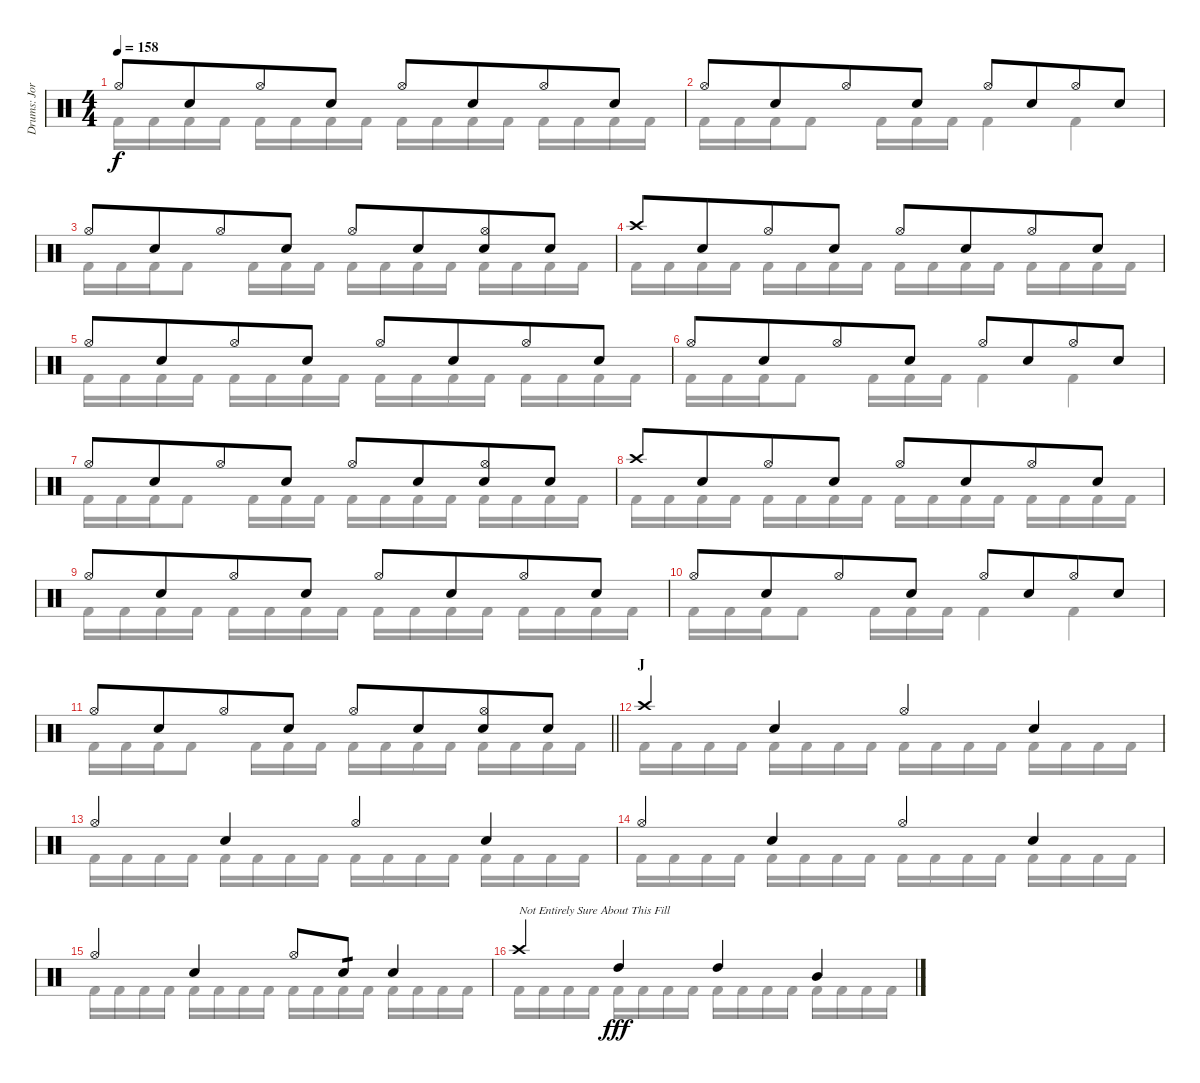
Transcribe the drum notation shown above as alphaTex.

\track ("Drums: Jorg" "Drums: Jor") {instrument percussion}
\staff {score}
\articulation defaults
\voice
\ts (4 4)
\tempo 158
\clef neutral
\ks c "Hi-Hat (open)".8{dy f} "Snare (hit) 2".8{beam merge} "Hi-Hat (open)".8 "Snare (hit) 2".8 "Hi-Hat (open)".8 "Snare (hit) 2".8{beam merge} "Hi-Hat (open)".8 "Snare (hit) 2".8
|
"Hi-Hat (open)".8 "Snare (hit) 2".8{beam merge} "Hi-Hat (open)".8 "Snare (hit) 2".8 "Hi-Hat (open)".8 "Snare (hit) 2".8{beam merge} "Hi-Hat (open)".8 "Snare (hit) 2".8 |
"Hi-Hat (open)".8 "Snare (hit) 2".8{beam merge} "Hi-Hat (open)".8 "Snare (hit) 2".8 "Hi-Hat (open)".8 "Snare (hit) 2".8{beam merge} ("Hi-Hat (open)" "Snare (hit) 2").8 "Snare (hit) 2".8 |
"Crash high (hit)".8 "Snare (hit) 2".8{beam merge} "Hi-Hat (open)".8 "Snare (hit) 2".8 "Hi-Hat (open)".8 "Snare (hit) 2".8{beam merge} "Hi-Hat (open)".8 "Snare (hit) 2".8 |
"Hi-Hat (open)".8 "Snare (hit) 2".8{beam merge} "Hi-Hat (open)".8 "Snare (hit) 2".8 "Hi-Hat (open)".8 "Snare (hit) 2".8{beam merge} "Hi-Hat (open)".8 "Snare (hit) 2".8 |
"Hi-Hat (open)".8 "Snare (hit) 2".8{beam merge} "Hi-Hat (open)".8 "Snare (hit) 2".8 "Hi-Hat (open)".8 "Snare (hit) 2".8{beam merge} "Hi-Hat (open)".8 "Snare (hit) 2".8 |
"Hi-Hat (open)".8 "Snare (hit) 2".8{beam merge} "Hi-Hat (open)".8 "Snare (hit) 2".8 "Hi-Hat (open)".8 "Snare (hit) 2".8{beam merge} ("Hi-Hat (open)" "Snare (hit) 2").8 "Snare (hit) 2".8 |
"Crash high (hit)".8 "Snare (hit) 2".8{beam merge} "Hi-Hat (open)".8 "Snare (hit) 2".8 "Hi-Hat (open)".8 "Snare (hit) 2".8{beam merge} "Hi-Hat (open)".8 "Snare (hit) 2".8 |
"Hi-Hat (open)".8 "Snare (hit) 2".8{beam merge} "Hi-Hat (open)".8 "Snare (hit) 2".8 "Hi-Hat (open)".8 "Snare (hit) 2".8{beam merge} "Hi-Hat (open)".8 "Snare (hit) 2".8 |
"Hi-Hat (open)".8 "Snare (hit) 2".8{beam merge} "Hi-Hat (open)".8 "Snare (hit) 2".8 "Hi-Hat (open)".8 "Snare (hit) 2".8{beam merge} "Hi-Hat (open)".8 "Snare (hit) 2".8 |
\barLineRight lightlight "Hi-Hat (open)".8 "Snare (hit) 2".8{beam merge} "Hi-Hat (open)".8 "Snare (hit) 2".8 "Hi-Hat (open)".8 "Snare (hit) 2".8{beam merge}
("Hi-Hat (open)" "Snare (hit) 2").8 "Snare (hit) 2".8 |
\section ("" "J")
"Crash high (hit)".4 "Snare (hit) 2".4 "Hi-Hat (open)".4 "Snare (hit) 2".4 |
"Hi-Hat (open)".4 "Snare (hit) 2".4 "Hi-Hat (open)".4 "Snare (hit) 2".4 |
"Hi-Hat (open)".4 "Snare (hit) 2".4 "Hi-Hat (open)".4 "Snare (hit) 2".4 |
"Hi-Hat (open)".4 "Snare (hit) 2".4 "Hi-Hat (open)".8 "Snare (hit) 2".8{tp 1} "Snare (hit) 2".4 |
"Crash high (hit)".4{txt "Not Entirely Sure About This Fill"} "High Tom (hit)".4{dy fff} "High Tom (hit)".4 "Mid Tom (hit)".4
\voice
\clef neutral
\ottava regular
\simile none
\ks c "Kick (hit) 2".16{dy f} "Kick (hit) 2".16 "Kick (hit) 2".16 "Kick (hit) 2".16 "Kick (hit) 2".16 "Kick (hit) 2".16 "Kick (hit) 2".16 "Kick (hit) 2".16 "Kick (hit) 2".16 "Kick (hit) 2".16 "Kick (hit) 2".16 "Kick (hit) 2".16 "Kick (hit) 2".16 "Kick (hit) 2".16 "Kick (hit) 2".16 "Kick (hit) 2".16
|
"Kick (hit) 2".16 "Kick (hit) 2".16 "Kick (hit) 2".16 "Kick (hit) 2".8 "Kick (hit) 2".16 "Kick (hit) 2".16 "Kick (hit) 2".16 "Kick (hit) 2".4 "Kick (hit) 2".4 |
"Kick (hit) 2".16 "Kick (hit) 2".16 "Kick (hit) 2".16 "Kick (hit) 2".8 "Kick (hit) 2".16 "Kick (hit) 2".16 "Kick (hit) 2".16 "Kick (hit) 2".16 "Kick (hit) 2".16 "Kick (hit) 2".16 "Kick (hit) 2".16 "Kick (hit) 2".16 "Kick (hit) 2".16 "Kick (hit) 2".16 "Kick (hit) 2".16 |
"Kick (hit) 2".16 "Kick (hit) 2".16 "Kick (hit) 2".16 "Kick (hit) 2".16 "Kick (hit) 2".16 "Kick (hit) 2".16 "Kick (hit) 2".16 "Kick (hit) 2".16 "Kick (hit) 2".16 "Kick (hit) 2".16 "Kick (hit) 2".16 "Kick (hit) 2".16 "Kick (hit) 2".16 "Kick (hit) 2".16 "Kick (hit) 2".16 "Kick (hit) 2".16 |
"Kick (hit) 2".16 "Kick (hit) 2".16 "Kick (hit) 2".16 "Kick (hit) 2".16 "Kick (hit) 2".16 "Kick (hit) 2".16 "Kick (hit) 2".16 "Kick (hit) 2".16 "Kick (hit) 2".16 "Kick (hit) 2".16 "Kick (hit) 2".16 "Kick (hit) 2".16 "Kick (hit) 2".16 "Kick (hit) 2".16 "Kick (hit) 2".16 "Kick (hit) 2".16 |
"Kick (hit) 2".16 "Kick (hit) 2".16 "Kick (hit) 2".16 "Kick (hit) 2".8 "Kick (hit) 2".16 "Kick (hit) 2".16 "Kick (hit) 2".16 "Kick (hit) 2".4 "Kick (hit) 2".4 |
"Kick (hit) 2".16 "Kick (hit) 2".16 "Kick (hit) 2".16 "Kick (hit) 2".8 "Kick (hit) 2".16 "Kick (hit) 2".16 "Kick (hit) 2".16 "Kick (hit) 2".16 "Kick (hit) 2".16 "Kick (hit) 2".16 "Kick (hit) 2".16 "Kick (hit) 2".16 "Kick (hit) 2".16 "Kick (hit) 2".16 "Kick (hit) 2".16 |
"Kick (hit) 2".16 "Kick (hit) 2".16 "Kick (hit) 2".16 "Kick (hit) 2".16 "Kick (hit) 2".16 "Kick (hit) 2".16 "Kick (hit) 2".16 "Kick (hit) 2".16 "Kick (hit) 2".16 "Kick (hit) 2".16 "Kick (hit) 2".16 "Kick (hit) 2".16 "Kick (hit) 2".16 "Kick (hit) 2".16 "Kick (hit) 2".16 "Kick (hit) 2".16 |
"Kick (hit) 2".16 "Kick (hit) 2".16 "Kick (hit) 2".16 "Kick (hit) 2".16 "Kick (hit) 2".16 "Kick (hit) 2".16 "Kick (hit) 2".16 "Kick (hit) 2".16 "Kick (hit) 2".16 "Kick (hit) 2".16 "Kick (hit) 2".16 "Kick (hit) 2".16 "Kick (hit) 2".16 "Kick (hit) 2".16 "Kick (hit) 2".16 "Kick (hit) 2".16 |
"Kick (hit) 2".16 "Kick (hit) 2".16 "Kick (hit) 2".16 "Kick (hit) 2".8 "Kick (hit) 2".16 "Kick (hit) 2".16 "Kick (hit) 2".16 "Kick (hit) 2".4 "Kick (hit) 2".4 |
\barLineRight lightlight "Kick (hit) 2".16 "Kick (hit) 2".16 "Kick (hit) 2".16 "Kick (hit) 2".8 "Kick (hit) 2".16 "Kick (hit) 2".16 "Kick (hit) 2".16 "Kick (hit) 2".16 "Kick (hit) 2".16 "Kick (hit) 2".16 "Kick (hit) 2".16 "Kick (hit) 2".16 "Kick (hit) 2".16 "Kick (hit) 2".16 "Kick (hit) 2".16
|
"Kick (hit) 2".16 "Kick (hit) 2".16 "Kick (hit) 2".16 "Kick (hit) 2".16 "Kick (hit) 2".16 "Kick (hit) 2".16 "Kick (hit) 2".16 "Kick (hit) 2".16 "Kick (hit) 2".16 "Kick (hit) 2".16 "Kick (hit) 2".16 "Kick (hit) 2".16 "Kick (hit) 2".16 "Kick (hit) 2".16 "Kick (hit) 2".16 "Kick (hit) 2".16 |
"Kick (hit) 2".16 "Kick (hit) 2".16 "Kick (hit) 2".16 "Kick (hit) 2".16 "Kick (hit) 2".16 "Kick (hit) 2".16 "Kick (hit) 2".16 "Kick (hit) 2".16 "Kick (hit) 2".16 "Kick (hit) 2".16 "Kick (hit) 2".16 "Kick (hit) 2".16 "Kick (hit) 2".16 "Kick (hit) 2".16 "Kick (hit) 2".16 "Kick (hit) 2".16 |
"Kick (hit) 2".16 "Kick (hit) 2".16 "Kick (hit) 2".16 "Kick (hit) 2".16 "Kick (hit) 2".16 "Kick (hit) 2".16 "Kick (hit) 2".16 "Kick (hit) 2".16 "Kick (hit) 2".16 "Kick (hit) 2".16 "Kick (hit) 2".16 "Kick (hit) 2".16 "Kick (hit) 2".16 "Kick (hit) 2".16 "Kick (hit) 2".16 "Kick (hit) 2".16 |
"Kick (hit) 2".16 "Kick (hit) 2".16 "Kick (hit) 2".16 "Kick (hit) 2".16 "Kick (hit) 2".16 "Kick (hit) 2".16 "Kick (hit) 2".16 "Kick (hit) 2".16 "Kick (hit) 2".16 "Kick (hit) 2".16 "Kick (hit) 2".16 "Kick (hit) 2".16 "Kick (hit) 2".16 "Kick (hit) 2".16 "Kick (hit) 2".16 "Kick (hit) 2".16 |
"Kick (hit) 2".16 "Kick (hit) 2".16 "Kick (hit) 2".16 "Kick (hit) 2".16 "Kick (hit) 2".16 "Kick (hit) 2".16 "Kick (hit) 2".16 "Kick (hit) 2".16 "Kick (hit) 2".16 "Kick (hit) 2".16 "Kick (hit) 2".16 "Kick (hit) 2".16 "Kick (hit) 2".16 "Kick (hit) 2".16 "Kick (hit) 2".16 "Kick (hit) 2".16
